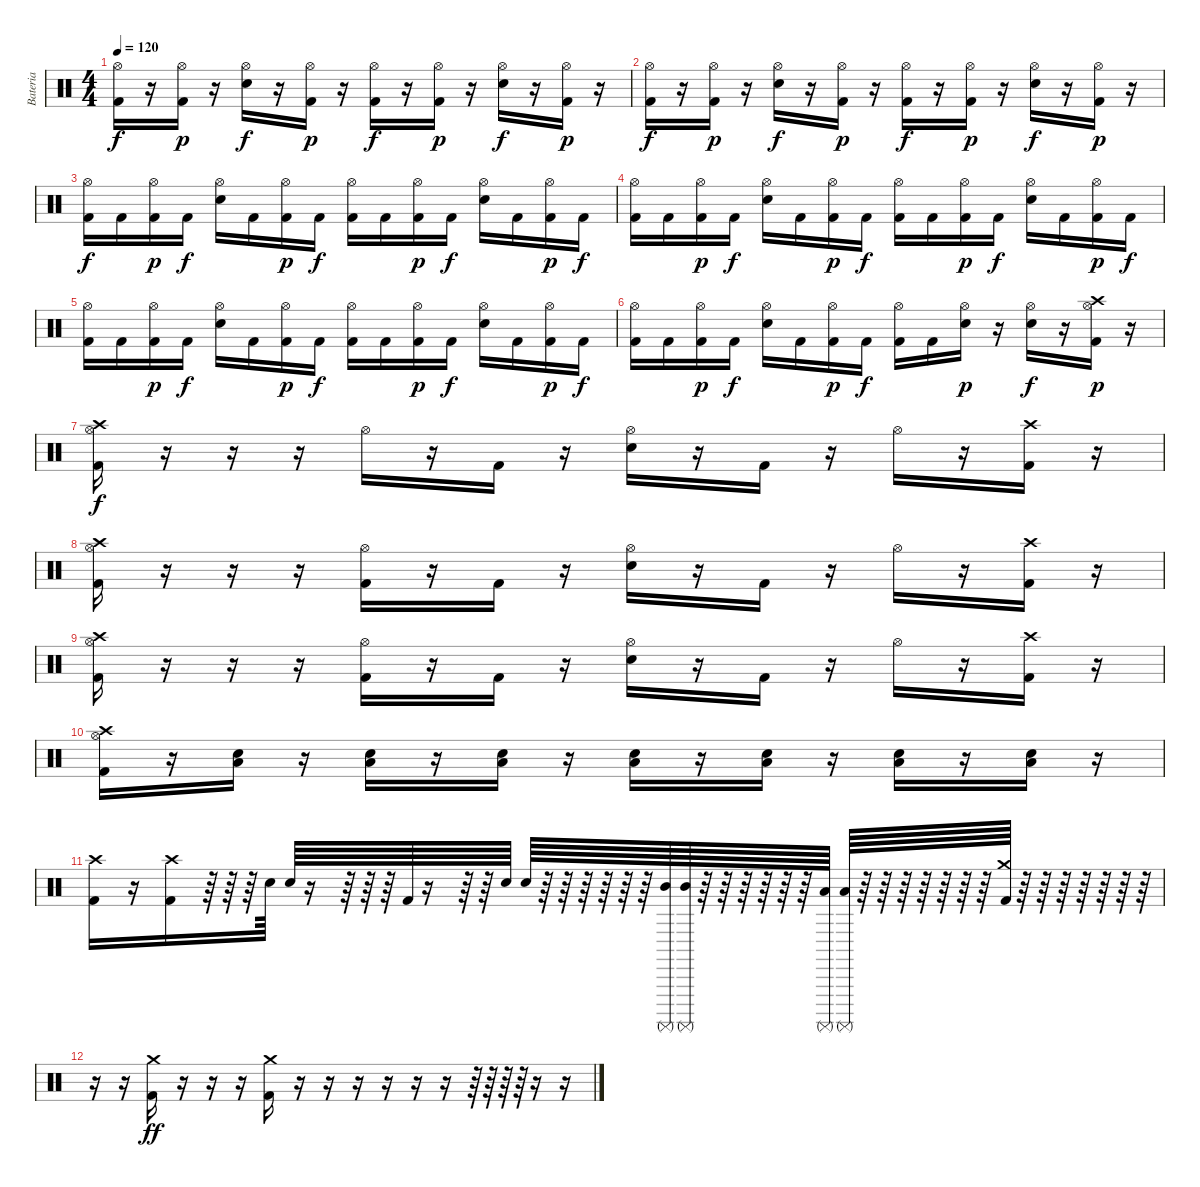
\track ("Bateria" "Bateria") {instrument percussion}
\staff {score}
\articulation defaults
\ts (4 4)
\tempo 120
\clef neutral
\ks c
("Kick (hit) 2" "Hi-Hat (open)").16{dy f} r.16 ("Kick (hit) 2" "Hi-Hat (open)").16{dy p} r.16 ("Electric Snare (hit)" "Hi-Hat (open)").16{dy f} r.16 ("Kick (hit) 2" "Hi-Hat (open)").16{dy p} r.16 ("Kick (hit) 2" "Hi-Hat (open)").16{dy f} r.16 ("Kick (hit) 2" "Hi-Hat (open)").16{dy p} r.16 ("Electric Snare (hit)" "Hi-Hat (open)").16{dy f} r.16 ("Kick (hit) 2" "Hi-Hat (open)").16{dy p} r.16 |
("Kick (hit) 2" "Hi-Hat (open)").16{dy f} r.16 ("Kick (hit) 2" "Hi-Hat (open)").16{dy p} r.16 ("Electric Snare (hit)" "Hi-Hat (open)").16{dy f} r.16 ("Kick (hit) 2" "Hi-Hat (open)").16{dy p} r.16 ("Kick (hit) 2" "Hi-Hat (open)").16{dy f} r.16 ("Kick (hit) 2" "Hi-Hat (open)").16{dy p} r.16 ("Electric Snare (hit)" "Hi-Hat (open)").16{dy f} r.16 ("Kick (hit) 2" "Hi-Hat (open)").16{dy p} r.16 |
("Kick (hit) 2" "Hi-Hat (open)").16{dy f} "Kick (hit) 2".16 ("Kick (hit) 2" "Hi-Hat (open)").16{dy p} "Kick (hit) 2".16{dy f} ("Electric Snare (hit)" "Hi-Hat (open)").16 "Kick (hit) 2".16 ("Kick (hit) 2" "Hi-Hat (open)").16{dy p} "Kick (hit) 2".16{dy f} ("Kick (hit) 2" "Hi-Hat (open)").16 "Kick (hit) 2".16 ("Kick (hit) 2" "Hi-Hat (open)").16{dy p} "Kick (hit) 2".16{dy f} ("Electric Snare (hit)" "Hi-Hat (open)").16 "Kick (hit) 2".16 ("Kick (hit) 2" "Hi-Hat (open)").16{dy p} "Kick (hit) 2".16{dy f} |
("Kick (hit) 2" "Hi-Hat (open)").16 "Kick (hit) 2".16 ("Kick (hit) 2" "Hi-Hat (open)").16{dy p} "Kick (hit) 2".16{dy f} ("Electric Snare (hit)" "Hi-Hat (open)").16 "Kick (hit) 2".16 ("Kick (hit) 2" "Hi-Hat (open)").16{dy p} "Kick (hit) 2".16{dy f} ("Kick (hit) 2" "Hi-Hat (open)").16 "Kick (hit) 2".16 ("Kick (hit) 2" "Hi-Hat (open)").16{dy p} "Kick (hit) 2".16{dy f} ("Electric Snare (hit)" "Hi-Hat (open)").16 "Kick (hit) 2".16 ("Kick (hit) 2" "Hi-Hat (open)").16{dy p} "Kick (hit) 2".16{dy f} |
("Kick (hit) 2" "Hi-Hat (open)").16 "Kick (hit) 2".16 ("Kick (hit) 2" "Hi-Hat (open)").16{dy p} "Kick (hit) 2".16{dy f} ("Electric Snare (hit)" "Hi-Hat (open)").16 "Kick (hit) 2".16 ("Kick (hit) 2" "Hi-Hat (open)").16{dy p} "Kick (hit) 2".16{dy f} ("Kick (hit) 2" "Hi-Hat (open)").16 "Kick (hit) 2".16 ("Kick (hit) 2" "Hi-Hat (open)").16{dy p} "Kick (hit) 2".16{dy f} ("Electric Snare (hit)" "Hi-Hat (open)").16 "Kick (hit) 2".16 ("Kick (hit) 2" "Hi-Hat (open)").16{dy p} "Kick (hit) 2".16{dy f} |
("Kick (hit) 2" "Hi-Hat (open)").16 "Kick (hit) 2".16 ("Kick (hit) 2" "Hi-Hat (open)").16{dy p} "Kick (hit) 2".16{dy f} ("Electric Snare (hit)" "Hi-Hat (open)").16 "Kick (hit) 2".16 ("Kick (hit) 2" "Hi-Hat (open)").16{dy p} "Kick (hit) 2".16{dy f} ("Kick (hit) 2" "Hi-Hat (open)").16 "Kick (hit) 2".16 ("Electric Snare (hit)" "Hi-Hat (open)").16{dy p} r.16 ("Electric Snare (hit)" "Hi-Hat (open)").16{dy f} r.16 ("Kick (hit) 2" "Crash high (hit)" "Hi-Hat (open)").16{dy p} r.16 |
("Kick (hit) 2" "Crash high (hit)" "Hi-Hat (open)").16{dy f} r.16 r.16 r.16 "Hi-Hat (open)".16 r.16 "Kick (hit) 2".16 r.16 ("Electric Snare (hit)" "Hi-Hat (open)").16 r.16 "Kick (hit) 2".16 r.16 "Hi-Hat (open)".16 r.16 ("Kick (hit) 2" "Crash high (hit)").16 r.16 |
("Kick (hit) 2" "Crash high (hit)" "Hi-Hat (open)").16 r.16 r.16 r.16 ("Kick (hit) 2" "Hi-Hat (open)").16 r.16 "Kick (hit) 2".16 r.16 ("Electric Snare (hit)" "Hi-Hat (open)").16 r.16 "Kick (hit) 2".16 r.16 "Hi-Hat (open)".16 r.16 ("Kick (hit) 2" "Crash high (hit)").16 r.16 |
("Kick (hit) 2" "Crash high (hit)" "Hi-Hat (open)").16 r.16 r.16 r.16 ("Kick (hit) 2" "Hi-Hat (open)").16 r.16 "Kick (hit) 2".16 r.16 ("Electric Snare (hit)" "Hi-Hat (open)").16 r.16 "Kick (hit) 2".16 r.16 "Hi-Hat (open)".16 r.16 ("Kick (hit) 2" "Crash high (hit)").16 r.16 |
("Kick (hit) 2" "Crash high (hit)" "Hi-Hat (open)").16 r.16 ("Electric Snare (hit)" "Low Floor Tom (hit)").16 r.16 ("Electric Snare (hit)" "Low Floor Tom (hit)").16 r.16 ("Electric Snare (hit)" "Low Floor Tom (hit)").16 r.16 ("Electric Snare (hit)" "Low Floor Tom (hit)").16 r.16 ("Electric Snare (hit)" "Low Floor Tom (hit)").16 r.16 ("Electric Snare (hit)" "Low Floor Tom (hit)").16 r.16 ("Electric Snare (hit)" "Low Floor Tom (hit)").16 r.16 |
("Kick (hit) 2" "Crash high (hit)").16 r.16 ("Kick (hit) 2" "Crash high (hit)").16 r.64 r.64 r.64 "Electric Snare (hit)".64 "Electric Snare (hit)".64 r.16 r.64 r.64 r.64 "Kick (hit) 2".64 r.16 r.64 r.64 "Electric Snare (hit)".64 "Electric Snare (hit)".64 r.64 r.64 r.64 r.64 r.64 r.64 ("Mid Tom (hit)" "Surdo (mute)").64 ("Mid Tom (hit)" "Surdo (mute)").64 r.64 r.64 r.64 r.64 r.64 r.64 ("Low Tom (hit)" "Surdo (mute)").64 ("Low Tom (hit)" "Surdo (mute)").64 r.64 r.64 r.64 r.64 r.64 r.64 r.64 ("Kick (hit) 2" "Crash medium (hit)").64 r.64 r.64 r.64 r.64 r.64 r.64 r.64 |
r.16 r.16 ("Kick (hit) 2" "Crash medium (hit)").16{dy ff} r.16 r.16 r.16 ("Kick (hit) 2" "Crash medium (hit)").16 r.16 r.16 r.16 r.16 r.16 r.16 r.64 r.64 r.64 r.64 r.16 r.16
